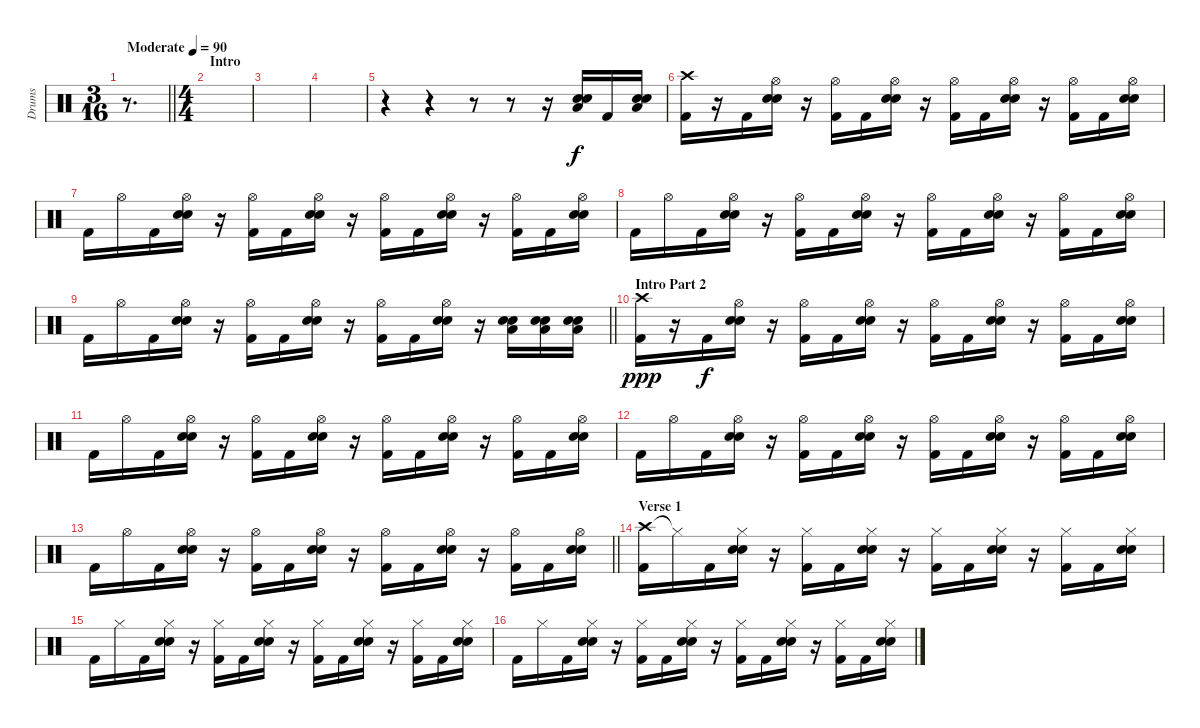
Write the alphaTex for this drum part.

\track ("Drums" "Drums") {instrument percussion}
\staff {score}
\articulation defaults
\ts (3 16)
\tempo (90 "Moderate")
\clef neutral
\barLineRight lightlight
\ks c
r.8{d dy f} |
\ts (4 4)
\section ("" "Intro")
|
|
|
r.4 r.4 r.8 r.8 r.16 ("Low Floor Tom (hit)" "Snare (hit) 2" "Snare (hit) 2").16 "Kick (hit) 2".16 ("Low Floor Tom (hit)" "Snare (hit) 2" "Snare (hit) 2").16 |
("Crash high (hit)" "Kick (hit) 2").16 r.16 "Kick (hit) 2".16 ("Hi-Hat (open)" "Snare (hit) 2" "Snare (hit) 2").16 r.16 ("Hi-Hat (open)" "Kick (hit) 2").16 "Kick (hit) 2".16 ("Hi-Hat (open)" "Snare (hit) 2" "Snare (hit) 2").16 r.16 ("Hi-Hat (open)" "Kick (hit) 2").16 "Kick (hit) 2".16 ("Hi-Hat (open)" "Snare (hit) 2" "Snare (hit) 2").16 r.16 ("Hi-Hat (open)" "Kick (hit) 2").16 "Kick (hit) 2".16 ("Hi-Hat (open)" "Snare (hit) 2" "Snare (hit) 2").16 |
"Kick (hit) 2".16 "Hi-Hat (open)".16 "Kick (hit) 2".16 ("Hi-Hat (open)" "Snare (hit) 2" "Snare (hit) 2").16 r.16 ("Hi-Hat (open)" "Kick (hit) 2").16 "Kick (hit) 2".16 ("Hi-Hat (open)" "Snare (hit) 2" "Snare (hit) 2").16 r.16 ("Hi-Hat (open)" "Kick (hit) 2").16 "Kick (hit) 2".16 ("Hi-Hat (open)" "Snare (hit) 2" "Snare (hit) 2").16 r.16 ("Hi-Hat (open)" "Kick (hit) 2").16 "Kick (hit) 2".16 ("Hi-Hat (open)" "Snare (hit) 2" "Snare (hit) 2").16 |
"Kick (hit) 2".16 "Hi-Hat (open)".16 "Kick (hit) 2".16 ("Hi-Hat (open)" "Snare (hit) 2" "Snare (hit) 2").16 r.16 ("Hi-Hat (open)" "Kick (hit) 2").16 "Kick (hit) 2".16 ("Hi-Hat (open)" "Snare (hit) 2" "Snare (hit) 2").16 r.16 ("Hi-Hat (open)" "Kick (hit) 2").16 "Kick (hit) 2".16 ("Hi-Hat (open)" "Snare (hit) 2" "Snare (hit) 2").16 r.16 ("Hi-Hat (open)" "Kick (hit) 2").16 "Kick (hit) 2".16 ("Hi-Hat (open)" "Snare (hit) 2" "Snare (hit) 2").16 |
\barLineRight lightlight "Kick (hit) 2".16 "Hi-Hat (open)".16 "Kick (hit) 2".16
("Hi-Hat (open)" "Snare (hit) 2" "Snare (hit) 2").16 r.16 ("Hi-Hat (open)" "Kick (hit) 2").16 "Kick (hit) 2".16 ("Hi-Hat (open)" "Snare (hit) 2" "Snare (hit) 2").16 r.16 ("Hi-Hat (open)" "Kick (hit) 2").16 "Kick (hit) 2".16 ("Hi-Hat (open)" "Snare (hit) 2" "Snare (hit) 2").16 r.16 ("Low Floor Tom (hit)" "Snare (hit) 2" "Snare (hit) 2").16 ("Low Floor Tom (hit)" "Snare (hit) 2" "Snare (hit) 2").16 ("Low Floor Tom (hit)" "Snare (hit) 2" "Snare (hit) 2").16 |
\section ("" "Intro Part 2")
("Crash high (hit)" "Kick (hit) 2").16{dy ppp} r.16 "Kick (hit) 2".16{dy f} ("Hi-Hat (open)" "Snare (hit) 2" "Snare (hit) 2").16 r.16 ("Hi-Hat (open)" "Kick (hit) 2").16 "Kick (hit) 2".16 ("Hi-Hat (open)" "Snare (hit) 2" "Snare (hit) 2").16 r.16 ("Hi-Hat (open)" "Kick (hit) 2").16 "Kick (hit) 2".16 ("Hi-Hat (open)" "Snare (hit) 2" "Snare (hit) 2").16 r.16 ("Hi-Hat (open)" "Kick (hit) 2").16 "Kick (hit) 2".16 ("Hi-Hat (open)" "Snare (hit) 2" "Snare (hit) 2").16 |
"Kick (hit) 2".16 "Hi-Hat (open)".16 "Kick (hit) 2".16 ("Hi-Hat (open)" "Snare (hit) 2" "Snare (hit) 2").16 r.16 ("Hi-Hat (open)" "Kick (hit) 2").16 "Kick (hit) 2".16 ("Hi-Hat (open)" "Snare (hit) 2" "Snare (hit) 2").16 r.16 ("Hi-Hat (open)" "Kick (hit) 2").16 "Kick (hit) 2".16 ("Hi-Hat (open)" "Snare (hit) 2" "Snare (hit) 2").16 r.16 ("Hi-Hat (open)" "Kick (hit) 2").16 "Kick (hit) 2".16 ("Hi-Hat (open)" "Snare (hit) 2" "Snare (hit) 2").16 |
"Kick (hit) 2".16 "Hi-Hat (open)".16 "Kick (hit) 2".16 ("Hi-Hat (open)" "Snare (hit) 2" "Snare (hit) 2").16 r.16 ("Hi-Hat (open)" "Kick (hit) 2").16 "Kick (hit) 2".16 ("Hi-Hat (open)" "Snare (hit) 2" "Snare (hit) 2").16 r.16 ("Hi-Hat (open)" "Kick (hit) 2").16 "Kick (hit) 2".16 ("Hi-Hat (open)" "Snare (hit) 2" "Snare (hit) 2").16 r.16 ("Hi-Hat (open)" "Kick (hit) 2").16 "Kick (hit) 2".16 ("Hi-Hat (open)" "Snare (hit) 2" "Snare (hit) 2").16 |
\barLineRight lightlight "Kick (hit) 2".16 "Hi-Hat (open)".16 "Kick (hit) 2".16
("Hi-Hat (open)" "Snare (hit) 2" "Snare (hit) 2").16 r.16 ("Hi-Hat (open)" "Kick (hit) 2").16 "Kick (hit) 2".16 ("Hi-Hat (open)" "Snare (hit) 2" "Snare (hit) 2").16 r.16 ("Hi-Hat (open)" "Kick (hit) 2").16 "Kick (hit) 2".16 ("Hi-Hat (open)" "Snare (hit) 2" "Snare (hit) 2").16 r.16 ("Hi-Hat (open)" "Kick (hit) 2").16 "Kick (hit) 2".16 ("Hi-Hat (open)" "Snare (hit) 2" "Snare (hit) 2").16 |
\section ("" "Verse 1")
("Crash high (hit)" "Kick (hit) 2").16 "Hi-Hat (closed)"{t}.16 "Kick (hit) 2".16 ("Hi-Hat (closed)" "Snare (hit) 2" "Snare (hit) 2").16 r.16 ("Hi-Hat (closed)" "Kick (hit) 2").16 "Kick (hit) 2".16 ("Hi-Hat (closed)" "Snare (hit) 2" "Snare (hit) 2").16 r.16 ("Hi-Hat (closed)" "Kick (hit) 2").16 "Kick (hit) 2".16 ("Hi-Hat (closed)" "Snare (hit) 2" "Snare (hit) 2").16 r.16 ("Hi-Hat (closed)" "Kick (hit) 2").16 "Kick (hit) 2".16 ("Hi-Hat (closed)" "Snare (hit) 2" "Snare (hit) 2").16 |
"Kick (hit) 2".16 "Hi-Hat (closed)".16 "Kick (hit) 2".16 ("Hi-Hat (closed)" "Snare (hit) 2" "Snare (hit) 2").16 r.16 ("Hi-Hat (closed)" "Kick (hit) 2").16 "Kick (hit) 2".16 ("Hi-Hat (closed)" "Snare (hit) 2" "Snare (hit) 2").16 r.16 ("Hi-Hat (closed)" "Kick (hit) 2").16 "Kick (hit) 2".16 ("Hi-Hat (closed)" "Snare (hit) 2" "Snare (hit) 2").16 r.16 ("Hi-Hat (closed)" "Kick (hit) 2").16 "Kick (hit) 2".16 ("Hi-Hat (closed)" "Snare (hit) 2" "Snare (hit) 2").16 |
"Kick (hit) 2".16 "Hi-Hat (closed)".16 "Kick (hit) 2".16 ("Hi-Hat (closed)" "Snare (hit) 2" "Snare (hit) 2").16 r.16 ("Hi-Hat (closed)" "Kick (hit) 2").16 "Kick (hit) 2".16 ("Hi-Hat (closed)" "Snare (hit) 2" "Snare (hit) 2").16 r.16 ("Hi-Hat (closed)" "Kick (hit) 2").16 "Kick (hit) 2".16 ("Hi-Hat (closed)" "Snare (hit) 2" "Snare (hit) 2").16 r.16 ("Hi-Hat (closed)" "Kick (hit) 2").16 "Kick (hit) 2".16 ("Hi-Hat (closed)" "Snare (hit) 2" "Snare (hit) 2").16
